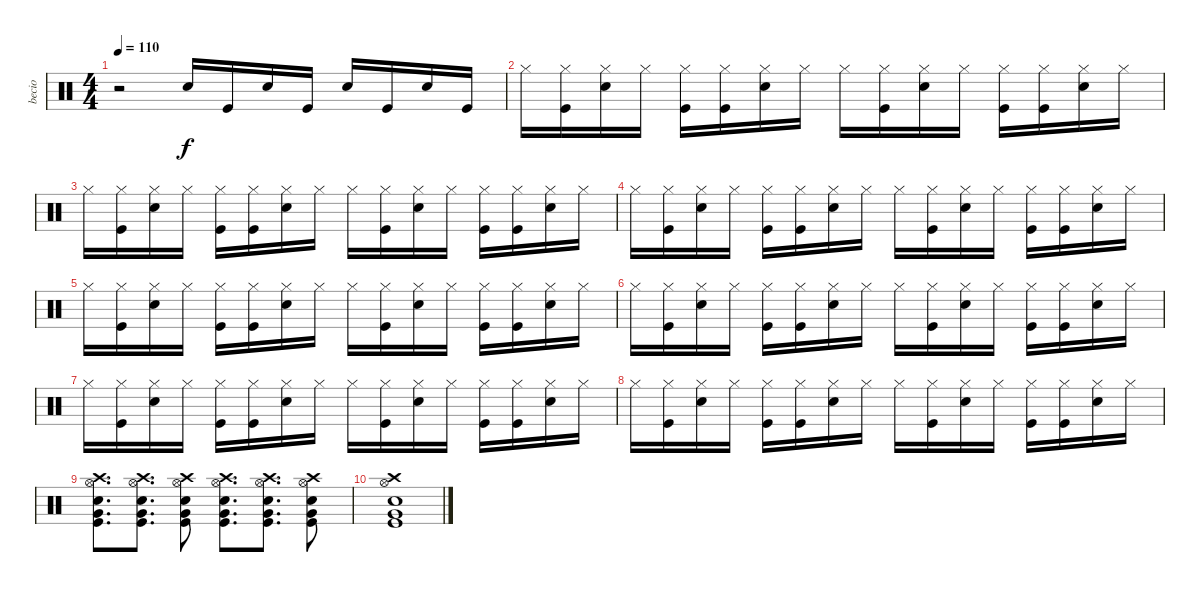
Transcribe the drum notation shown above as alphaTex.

\track ("becio" "becio") {instrument percussion}
\staff {score}
\articulation defaults
\ts (4 4)
\tempo 110
\clef neutral
\ks c
r.2{dy f} "Snare (hit) 2".16 "Kick (hit)".16 "Snare (hit) 2".16 "Kick (hit)".16 "Snare (hit) 2".16 "Kick (hit)".16 "Snare (hit) 2".16 "Kick (hit)".16 |
"Hi-Hat (closed)".16 ("Kick (hit)" "Hi-Hat (closed)").16 ("Snare (hit) 2" "Hi-Hat (closed)").16 "Hi-Hat (closed)".16 ("Kick (hit)" "Hi-Hat (closed)").16 ("Kick (hit)" "Hi-Hat (closed)").16 ("Snare (hit) 2" "Hi-Hat (closed)").16 "Hi-Hat (closed)".16 "Hi-Hat (closed)".16 ("Kick (hit)" "Hi-Hat (closed)").16 ("Snare (hit) 2" "Hi-Hat (closed)").16 "Hi-Hat (closed)".16 ("Kick (hit)" "Hi-Hat (closed)").16 ("Kick (hit)" "Hi-Hat (closed)").16 ("Snare (hit) 2" "Hi-Hat (closed)").16 "Hi-Hat (closed)".16 |
"Hi-Hat (closed)".16 ("Kick (hit)" "Hi-Hat (closed)").16 ("Snare (hit) 2" "Hi-Hat (closed)").16 "Hi-Hat (closed)".16 ("Kick (hit)" "Hi-Hat (closed)").16 ("Kick (hit)" "Hi-Hat (closed)").16 ("Snare (hit) 2" "Hi-Hat (closed)").16 "Hi-Hat (closed)".16 "Hi-Hat (closed)".16 ("Kick (hit)" "Hi-Hat (closed)").16 ("Snare (hit) 2" "Hi-Hat (closed)").16 "Hi-Hat (closed)".16 ("Kick (hit)" "Hi-Hat (closed)").16 ("Kick (hit)" "Hi-Hat (closed)").16 ("Snare (hit) 2" "Hi-Hat (closed)").16 "Hi-Hat (closed)".16 |
"Hi-Hat (closed)".16 ("Kick (hit)" "Hi-Hat (closed)").16 ("Snare (hit) 2" "Hi-Hat (closed)").16 "Hi-Hat (closed)".16 ("Kick (hit)" "Hi-Hat (closed)").16 ("Kick (hit)" "Hi-Hat (closed)").16 ("Snare (hit) 2" "Hi-Hat (closed)").16 "Hi-Hat (closed)".16 "Hi-Hat (closed)".16 ("Kick (hit)" "Hi-Hat (closed)").16 ("Snare (hit) 2" "Hi-Hat (closed)").16 "Hi-Hat (closed)".16 ("Kick (hit)" "Hi-Hat (closed)").16 ("Kick (hit)" "Hi-Hat (closed)").16 ("Snare (hit) 2" "Hi-Hat (closed)").16 "Hi-Hat (closed)".16 |
"Hi-Hat (closed)".16 ("Kick (hit)" "Hi-Hat (closed)").16 ("Snare (hit) 2" "Hi-Hat (closed)").16 "Hi-Hat (closed)".16 ("Kick (hit)" "Hi-Hat (closed)").16 ("Kick (hit)" "Hi-Hat (closed)").16 ("Snare (hit) 2" "Hi-Hat (closed)").16 "Hi-Hat (closed)".16 "Hi-Hat (closed)".16 ("Kick (hit)" "Hi-Hat (closed)").16 ("Snare (hit) 2" "Hi-Hat (closed)").16 "Hi-Hat (closed)".16 ("Kick (hit)" "Hi-Hat (closed)").16 ("Kick (hit)" "Hi-Hat (closed)").16 ("Snare (hit) 2" "Hi-Hat (closed)").16 "Hi-Hat (closed)".16 |
"Hi-Hat (closed)".16 ("Kick (hit)" "Hi-Hat (closed)").16 ("Snare (hit) 2" "Hi-Hat (closed)").16 "Hi-Hat (closed)".16 ("Kick (hit)" "Hi-Hat (closed)").16 ("Kick (hit)" "Hi-Hat (closed)").16 ("Snare (hit) 2" "Hi-Hat (closed)").16 "Hi-Hat (closed)".16 "Hi-Hat (closed)".16 ("Kick (hit)" "Hi-Hat (closed)").16 ("Snare (hit) 2" "Hi-Hat (closed)").16 "Hi-Hat (closed)".16 ("Kick (hit)" "Hi-Hat (closed)").16 ("Kick (hit)" "Hi-Hat (closed)").16 ("Snare (hit) 2" "Hi-Hat (closed)").16 "Hi-Hat (closed)".16 |
"Hi-Hat (closed)".16 ("Kick (hit)" "Hi-Hat (closed)").16 ("Snare (hit) 2" "Hi-Hat (closed)").16 "Hi-Hat (closed)".16 ("Kick (hit)" "Hi-Hat (closed)").16 ("Kick (hit)" "Hi-Hat (closed)").16 ("Snare (hit) 2" "Hi-Hat (closed)").16 "Hi-Hat (closed)".16 "Hi-Hat (closed)".16 ("Kick (hit)" "Hi-Hat (closed)").16 ("Snare (hit) 2" "Hi-Hat (closed)").16 "Hi-Hat (closed)".16 ("Kick (hit)" "Hi-Hat (closed)").16 ("Kick (hit)" "Hi-Hat (closed)").16 ("Snare (hit) 2" "Hi-Hat (closed)").16 "Hi-Hat (closed)".16 |
"Hi-Hat (closed)".16 ("Kick (hit)" "Hi-Hat (closed)").16 ("Snare (hit) 2" "Hi-Hat (closed)").16 "Hi-Hat (closed)".16 ("Kick (hit)" "Hi-Hat (closed)").16 ("Kick (hit)" "Hi-Hat (closed)").16 ("Snare (hit) 2" "Hi-Hat (closed)").16 "Hi-Hat (closed)".16 "Hi-Hat (closed)".16 ("Kick (hit)" "Hi-Hat (closed)").16 ("Snare (hit) 2" "Hi-Hat (closed)").16 "Hi-Hat (closed)".16 ("Kick (hit)" "Hi-Hat (closed)").16 ("Kick (hit)" "Hi-Hat (closed)").16 ("Snare (hit) 2" "Hi-Hat (closed)").16 "Hi-Hat (closed)".16 |
("Kick (hit)" "Snare (hit) 2" "Very Low Tom (hit)" "Hi-Hat (open)" "Crash high (hit)").8{d} ("Kick (hit)" "Snare (hit) 2" "Very Low Tom (hit)" "Hi-Hat (open)" "Crash high (hit)").8{d} ("Kick (hit)" "Snare (hit) 2" "Very Low Tom (hit)" "Hi-Hat (open)" "Crash high (hit)").8 ("Kick (hit)" "Snare (hit) 2" "Very Low Tom (hit)" "Hi-Hat (open)" "Crash high (hit)").8{d} ("Kick (hit)" "Snare (hit) 2" "Very Low Tom (hit)" "Hi-Hat (open)" "Crash high (hit)").8{d} ("Kick (hit)" "Snare (hit) 2" "Very Low Tom (hit)" "Hi-Hat (open)" "Crash high (hit)").8 |
("Kick (hit)" "Snare (hit) 2" "Very Low Tom (hit)" "Hi-Hat (open)" "Crash high (hit)").1
